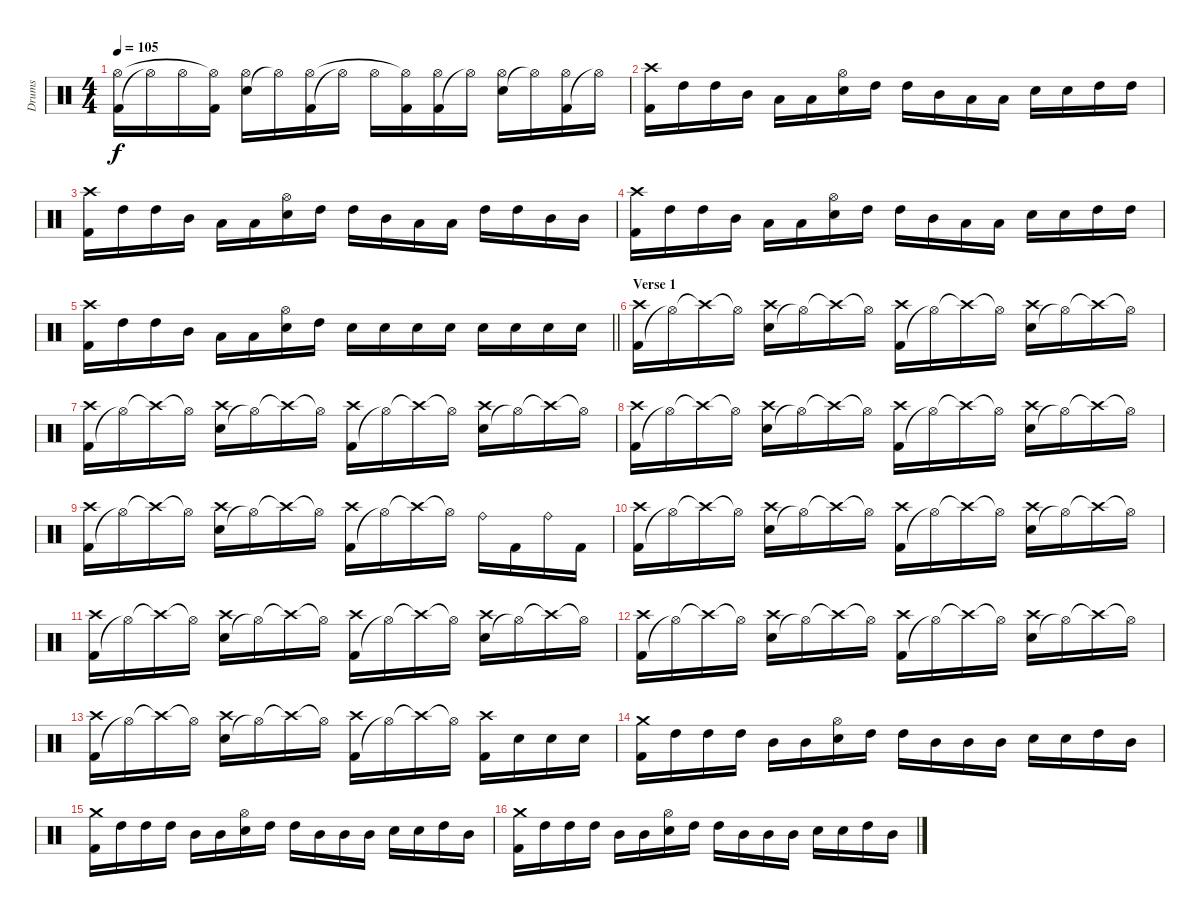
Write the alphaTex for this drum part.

\track ("Drums" "Drums") {instrument percussion}
\staff {score}
\articulation defaults
\ts (4 4)
\tempo 105
\clef neutral
\ks c
("Kick (hit) 2" "Hi-Hat (open)").16{dy f} "Hi-Hat (open)"{t}.16 "Hi-Hat (open)".16 ("Kick (hit) 2" "Hi-Hat (open)"{t}).16 ("Snare (hit) 2" "Hi-Hat (open)").16 "Hi-Hat (open)"{t}.16 ("Kick (hit) 2" "Hi-Hat (open)").16 "Hi-Hat (open)"{t}.16 "Hi-Hat (open)".16 ("Kick (hit) 2" "Hi-Hat (open)"{t}).16 ("Kick (hit) 2" "Hi-Hat (open)").16 "Hi-Hat (open)"{t}.16 ("Snare (hit) 2" "Hi-Hat (open)").16 "Hi-Hat (open)"{t}.16 ("Kick (hit) 2" "Hi-Hat (open)").16 "Hi-Hat (open)"{t}.16 |
("Crash high (hit)" "Kick (hit) 2").16 "High Tom (hit)".16 "High Tom (hit)".16 "Mid Tom (hit)".16 "Low Tom (hit)".16 "Low Tom (hit)".16 ("Hi-Hat (open)" "Snare (hit) 2").16 "High Tom (hit)".16 "High Tom (hit)".16 "Mid Tom (hit)".16 "Low Tom (hit)".16 "Low Tom (hit)".16 "Snare (hit) 2".16 "Snare (hit) 2".16 "High Tom (hit)".16 "High Tom (hit)".16 |
("Crash high (hit)" "Kick (hit) 2").16 "High Tom (hit)".16 "High Tom (hit)".16 "Mid Tom (hit)".16 "Low Tom (hit)".16 "Low Tom (hit)".16 ("Hi-Hat (open)" "Snare (hit) 2").16 "High Tom (hit)".16 "High Tom (hit)".16 "Mid Tom (hit)".16 "Low Tom (hit)".16 "Low Tom (hit)".16 "High Tom (hit)".16 "High Tom (hit)".16 "Mid Tom (hit)".16 "Mid Tom (hit)".16 |
("Crash high (hit)" "Kick (hit) 2").16 "High Tom (hit)".16 "High Tom (hit)".16 "Mid Tom (hit)".16 "Low Tom (hit)".16 "Low Tom (hit)".16 ("Hi-Hat (open)" "Snare (hit) 2").16 "High Tom (hit)".16 "High Tom (hit)".16 "Mid Tom (hit)".16 "Low Tom (hit)".16 "Low Tom (hit)".16 "Snare (hit) 2".16 "Snare (hit) 2".16 "High Tom (hit)".16 "High Tom (hit)".16 |
\barLineRight lightlight
("Crash high (hit)" "Kick (hit) 2").16 "High Tom (hit)".16 "High Tom (hit)".16 "Mid Tom (hit)".16 "Low Tom (hit)".16 "Low Tom (hit)".16 ("Hi-Hat (open)" "Snare (hit) 2").16 "High Tom (hit)".16 "Snare (hit) 2".16 "Snare (hit) 2".16 "Snare (hit) 2".16 "Snare (hit) 2".16 "Snare (hit) 2".16 "Snare (hit) 2".16 "Snare (hit) 2".16 "Snare (hit) 2".16 |
\section ("" "Verse 1")
("Kick (hit) 2" "Crash high (hit)").16 "Hi-Hat (open)"{t}.16 "Crash high (hit)"{t}.16 "Hi-Hat (open)"{t}.16 ("Snare (hit) 2" "Crash high (hit)").16 "Hi-Hat (open)"{t}.16 "Crash high (hit)"{t}.16 "Hi-Hat (open)"{t}.16 ("Kick (hit) 2" "Crash high (hit)").16 "Hi-Hat (open)"{t}.16 "Crash high (hit)"{t}.16 "Hi-Hat (open)"{t}.16 ("Snare (hit) 2" "Crash high (hit)").16 "Hi-Hat (open)"{t}.16 "Crash high (hit)"{t}.16 "Hi-Hat (open)"{t}.16 |
("Kick (hit) 2" "Crash high (hit)").16 "Hi-Hat (open)"{t}.16 "Crash high (hit)"{t}.16 "Hi-Hat (open)"{t}.16 ("Snare (hit) 2" "Crash high (hit)").16 "Hi-Hat (open)"{t}.16 "Crash high (hit)"{t}.16 "Hi-Hat (open)"{t}.16 ("Kick (hit) 2" "Crash high (hit)").16 "Hi-Hat (open)"{t}.16 "Crash high (hit)"{t}.16 "Hi-Hat (open)"{t}.16 ("Snare (hit) 2" "Crash high (hit)").16 "Hi-Hat (open)"{t}.16 "Crash high (hit)"{t}.16 "Hi-Hat (open)"{t}.16 |
("Kick (hit) 2" "Crash high (hit)").16 "Hi-Hat (open)"{t}.16 "Crash high (hit)"{t}.16 "Hi-Hat (open)"{t}.16 ("Snare (hit) 2" "Crash high (hit)").16 "Hi-Hat (open)"{t}.16 "Crash high (hit)"{t}.16 "Hi-Hat (open)"{t}.16 ("Kick (hit) 2" "Crash high (hit)").16 "Hi-Hat (open)"{t}.16 "Crash high (hit)"{t}.16 "Hi-Hat (open)"{t}.16 ("Snare (hit) 2" "Crash high (hit)").16 "Hi-Hat (open)"{t}.16 "Crash high (hit)"{t}.16 "Hi-Hat (open)"{t}.16 |
("Kick (hit) 2" "Crash high (hit)").16 "Hi-Hat (open)"{t}.16 "Crash high (hit)"{t}.16 "Hi-Hat (open)"{t}.16 ("Snare (hit) 2" "Crash high (hit)").16 "Hi-Hat (open)"{t}.16 "Crash high (hit)"{t}.16 "Hi-Hat (open)"{t}.16 ("Kick (hit) 2" "Crash high (hit)").16 "Hi-Hat (open)"{t}.16 "Crash high (hit)"{t}.16 "Hi-Hat (open)"{t}.16 "Ride (bell)".16 "Kick (hit) 2".16 "Ride (bell)".16 "Kick (hit) 2".16 |
("Kick (hit) 2" "Crash high (hit)").16 "Hi-Hat (open)"{t}.16 "Crash high (hit)"{t}.16 "Hi-Hat (open)"{t}.16 ("Snare (hit) 2" "Crash high (hit)").16 "Hi-Hat (open)"{t}.16 "Crash high (hit)"{t}.16 "Hi-Hat (open)"{t}.16 ("Kick (hit) 2" "Crash high (hit)").16 "Hi-Hat (open)"{t}.16 "Crash high (hit)"{t}.16 "Hi-Hat (open)"{t}.16 ("Snare (hit) 2" "Crash high (hit)").16 "Hi-Hat (open)"{t}.16 "Crash high (hit)"{t}.16 "Hi-Hat (open)"{t}.16 |
("Kick (hit) 2" "Crash high (hit)").16 "Hi-Hat (open)"{t}.16 "Crash high (hit)"{t}.16 "Hi-Hat (open)"{t}.16 ("Snare (hit) 2" "Crash high (hit)").16 "Hi-Hat (open)"{t}.16 "Crash high (hit)"{t}.16 "Hi-Hat (open)"{t}.16 ("Kick (hit) 2" "Crash high (hit)").16 "Hi-Hat (open)"{t}.16 "Crash high (hit)"{t}.16 "Hi-Hat (open)"{t}.16 ("Snare (hit) 2" "Crash high (hit)").16 "Hi-Hat (open)"{t}.16 "Crash high (hit)"{t}.16 "Hi-Hat (open)"{t}.16 |
("Kick (hit) 2" "Crash high (hit)").16 "Hi-Hat (open)"{t}.16 "Crash high (hit)"{t}.16 "Hi-Hat (open)"{t}.16 ("Snare (hit) 2" "Crash high (hit)").16 "Hi-Hat (open)"{t}.16 "Crash high (hit)"{t}.16 "Hi-Hat (open)"{t}.16 ("Kick (hit) 2" "Crash high (hit)").16 "Hi-Hat (open)"{t}.16 "Crash high (hit)"{t}.16 "Hi-Hat (open)"{t}.16 ("Snare (hit) 2" "Crash high (hit)").16 "Hi-Hat (open)"{t}.16 "Crash high (hit)"{t}.16 "Hi-Hat (open)"{t}.16 |
("Kick (hit) 2" "Crash high (hit)").16 "Hi-Hat (open)"{t}.16 "Crash high (hit)"{t}.16 "Hi-Hat (open)"{t}.16 ("Snare (hit) 2" "Crash high (hit)").16 "Hi-Hat (open)"{t}.16 "Crash high (hit)"{t}.16 "Hi-Hat (open)"{t}.16 ("Kick (hit) 2" "Crash high (hit)").16 "Hi-Hat (open)"{t}.16 "Crash high (hit)"{t}.16 "Hi-Hat (open)"{t}.16 ("Kick (hit) 2" "Crash high (hit)").16 "Snare (hit) 2".16 "Snare (hit) 2".16 "Snare (hit) 2".16 |
("Kick (hit) 2" "Crash medium (hit)").16 "High Tom (hit)".16 "High Tom (hit)".16 "High Tom (hit)".16 "Mid Tom (hit)".16 "Mid Tom (hit)".16 ("Snare (hit) 2" "Hi-Hat (open)").16 "High Tom (hit)".16 "High Tom (hit)".16 "Mid Tom (hit)".16 "Mid Tom (hit)".16 "Mid Tom (hit)".16 "Snare (hit) 2".16 "Snare (hit) 2".16 "High Tom (hit)".16 "Mid Tom (hit)".16 |
("Kick (hit) 2" "Crash medium (hit)").16 "High Tom (hit)".16 "High Tom (hit)".16 "High Tom (hit)".16 "Mid Tom (hit)".16 "Mid Tom (hit)".16 ("Snare (hit) 2" "Hi-Hat (open)").16 "High Tom (hit)".16 "High Tom (hit)".16 "Mid Tom (hit)".16 "Mid Tom (hit)".16 "Mid Tom (hit)".16 "Snare (hit) 2".16 "Snare (hit) 2".16 "High Tom (hit)".16 "Mid Tom (hit)".16 |
("Kick (hit) 2" "Crash medium (hit)").16 "High Tom (hit)".16 "High Tom (hit)".16 "High Tom (hit)".16 "Mid Tom (hit)".16 "Mid Tom (hit)".16 ("Snare (hit) 2" "Hi-Hat (open)").16 "High Tom (hit)".16 "High Tom (hit)".16 "Mid Tom (hit)".16 "Mid Tom (hit)".16 "Mid Tom (hit)".16 "Snare (hit) 2".16 "Snare (hit) 2".16 "High Tom (hit)".16 "Mid Tom (hit)".16
